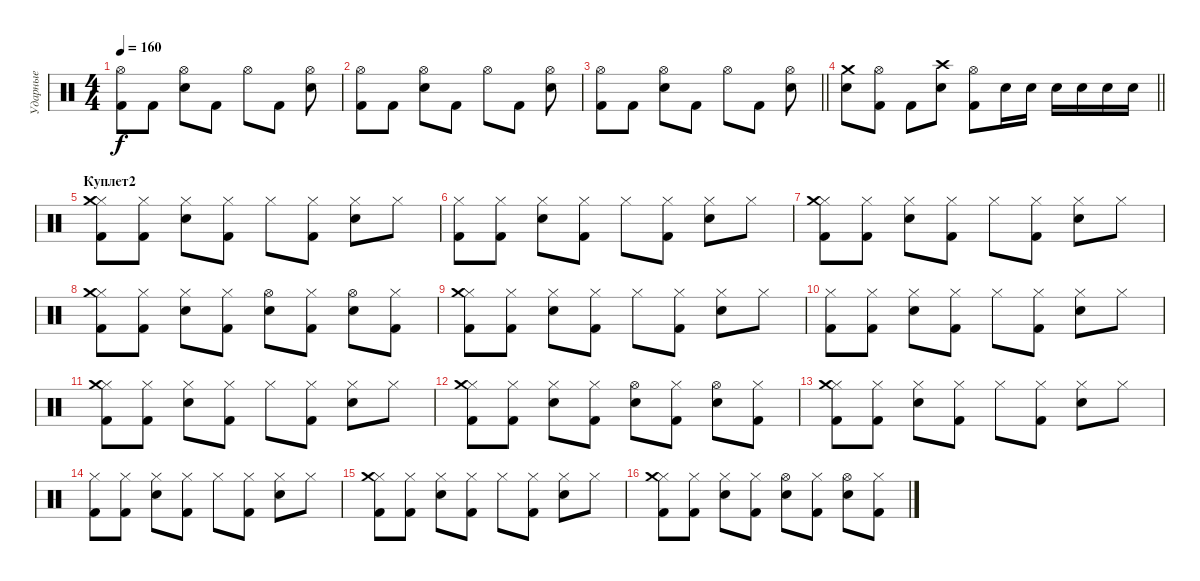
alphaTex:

\track ("Ударные" "Ударные") {instrument percussion}
\staff {score}
\articulation defaults
\ts (4 4)
\tempo 160
\clef neutral
\ks c
("Kick (hit) 2" "Hi-Hat (open)").8{dy f} "Kick (hit) 2".8 ("Snare (hit) 2" "Hi-Hat (open)").8 "Kick (hit) 2".8 "Hi-Hat (open)".8 "Kick (hit) 2".8 ("Snare (hit) 2" "Hi-Hat (open)").8 |
("Kick (hit) 2" "Hi-Hat (open)").8 "Kick (hit) 2".8 ("Snare (hit) 2" "Hi-Hat (open)").8 "Kick (hit) 2".8 "Hi-Hat (open)".8 "Kick (hit) 2".8 ("Snare (hit) 2" "Hi-Hat (open)").8 |
\barLineRight lightlight
("Kick (hit) 2" "Hi-Hat (open)").8 "Kick (hit) 2".8 ("Snare (hit) 2" "Hi-Hat (open)").8 "Kick (hit) 2".8 "Hi-Hat (open)".8 "Kick (hit) 2".8 ("Snare (hit) 2" "Hi-Hat (open)").8 |
\section ("" " ")
\barLineRight lightlight
("Snare (hit) 2" "Crash medium (hit)").8 ("Kick (hit) 2" "Hi-Hat (open)").8 "Kick (hit) 2".8 ("Snare (hit) 2" "Crash high (hit)").8 ("Kick (hit) 2" "Hi-Hat (open)").8 "Snare (hit) 2".16 "Snare (hit) 2".16 "Snare (hit) 2".16 "Snare (hit) 2".16 "Snare (hit) 2".16 "Snare (hit) 2".16 |
\section ("" "Куплет2")
("Kick (hit) 2" "Hi-Hat (closed)" "Crash medium (hit)").8 ("Kick (hit) 2" "Hi-Hat (closed)").8 ("Snare (hit) 2" "Hi-Hat (closed)").8 ("Kick (hit) 2" "Hi-Hat (closed)").8 "Hi-Hat (closed)".8 ("Kick (hit) 2" "Hi-Hat (closed)").8 ("Snare (hit) 2" "Hi-Hat (closed)").8 "Hi-Hat (closed)".8 |
("Kick (hit) 2" "Hi-Hat (closed)").8 ("Kick (hit) 2" "Hi-Hat (closed)").8 ("Snare (hit) 2" "Hi-Hat (closed)").8 ("Kick (hit) 2" "Hi-Hat (closed)").8 "Hi-Hat (closed)".8 ("Kick (hit) 2" "Hi-Hat (closed)").8 ("Snare (hit) 2" "Hi-Hat (closed)").8 "Hi-Hat (closed)".8 |
("Kick (hit) 2" "Hi-Hat (closed)" "Crash medium (hit)").8 ("Kick (hit) 2" "Hi-Hat (closed)").8 ("Snare (hit) 2" "Hi-Hat (closed)").8 ("Kick (hit) 2" "Hi-Hat (closed)").8 "Hi-Hat (closed)".8 ("Kick (hit) 2" "Hi-Hat (closed)").8 ("Snare (hit) 2" "Hi-Hat (closed)").8 "Hi-Hat (closed)".8 |
("Kick (hit) 2" "Hi-Hat (closed)" "Crash medium (hit)").8 ("Kick (hit) 2" "Hi-Hat (closed)").8 ("Snare (hit) 2" "Hi-Hat (closed)").8 ("Kick (hit) 2" "Hi-Hat (closed)").8 ("Snare (hit) 2" "Hi-Hat (open)").8 ("Kick (hit) 2" "Hi-Hat (closed)").8 ("Snare (hit) 2" "Hi-Hat (open)").8 ("Kick (hit) 2" "Hi-Hat (closed)").8 |
("Kick (hit) 2" "Hi-Hat (closed)" "Crash medium (hit)").8 ("Kick (hit) 2" "Hi-Hat (closed)").8 ("Snare (hit) 2" "Hi-Hat (closed)").8 ("Kick (hit) 2" "Hi-Hat (closed)").8 "Hi-Hat (closed)".8 ("Kick (hit) 2" "Hi-Hat (closed)").8 ("Snare (hit) 2" "Hi-Hat (closed)").8 "Hi-Hat (closed)".8 |
("Kick (hit) 2" "Hi-Hat (closed)").8 ("Kick (hit) 2" "Hi-Hat (closed)").8 ("Snare (hit) 2" "Hi-Hat (closed)").8 ("Kick (hit) 2" "Hi-Hat (closed)").8 "Hi-Hat (closed)".8 ("Kick (hit) 2" "Hi-Hat (closed)").8 ("Snare (hit) 2" "Hi-Hat (closed)").8 "Hi-Hat (closed)".8 |
("Kick (hit) 2" "Hi-Hat (closed)" "Crash medium (hit)").8 ("Kick (hit) 2" "Hi-Hat (closed)").8 ("Snare (hit) 2" "Hi-Hat (closed)").8 ("Kick (hit) 2" "Hi-Hat (closed)").8 "Hi-Hat (closed)".8 ("Kick (hit) 2" "Hi-Hat (closed)").8 ("Snare (hit) 2" "Hi-Hat (closed)").8 "Hi-Hat (closed)".8 |
("Kick (hit) 2" "Hi-Hat (closed)" "Crash medium (hit)").8 ("Kick (hit) 2" "Hi-Hat (closed)").8 ("Snare (hit) 2" "Hi-Hat (closed)").8 ("Kick (hit) 2" "Hi-Hat (closed)").8 ("Snare (hit) 2" "Hi-Hat (open)").8 ("Kick (hit) 2" "Hi-Hat (closed)").8 ("Snare (hit) 2" "Hi-Hat (open)").8 ("Kick (hit) 2" "Hi-Hat (closed)").8 |
("Kick (hit) 2" "Hi-Hat (closed)" "Crash medium (hit)").8 ("Kick (hit) 2" "Hi-Hat (closed)").8 ("Snare (hit) 2" "Hi-Hat (closed)").8 ("Kick (hit) 2" "Hi-Hat (closed)").8 "Hi-Hat (closed)".8 ("Kick (hit) 2" "Hi-Hat (closed)").8 ("Snare (hit) 2" "Hi-Hat (closed)").8 "Hi-Hat (closed)".8 |
("Kick (hit) 2" "Hi-Hat (closed)").8 ("Kick (hit) 2" "Hi-Hat (closed)").8 ("Snare (hit) 2" "Hi-Hat (closed)").8 ("Kick (hit) 2" "Hi-Hat (closed)").8 "Hi-Hat (closed)".8 ("Kick (hit) 2" "Hi-Hat (closed)").8 ("Snare (hit) 2" "Hi-Hat (closed)").8 "Hi-Hat (closed)".8 |
("Kick (hit) 2" "Hi-Hat (closed)" "Crash medium (hit)").8 ("Kick (hit) 2" "Hi-Hat (closed)").8 ("Snare (hit) 2" "Hi-Hat (closed)").8 ("Kick (hit) 2" "Hi-Hat (closed)").8 "Hi-Hat (closed)".8 ("Kick (hit) 2" "Hi-Hat (closed)").8 ("Snare (hit) 2" "Hi-Hat (closed)").8 "Hi-Hat (closed)".8 |
("Kick (hit) 2" "Hi-Hat (closed)" "Crash medium (hit)").8 ("Kick (hit) 2" "Hi-Hat (closed)").8 ("Snare (hit) 2" "Hi-Hat (closed)").8 ("Kick (hit) 2" "Hi-Hat (closed)").8 ("Snare (hit) 2" "Hi-Hat (open)").8 ("Kick (hit) 2" "Hi-Hat (closed)").8 ("Snare (hit) 2" "Hi-Hat (open)").8 ("Kick (hit) 2" "Hi-Hat (closed)").8
